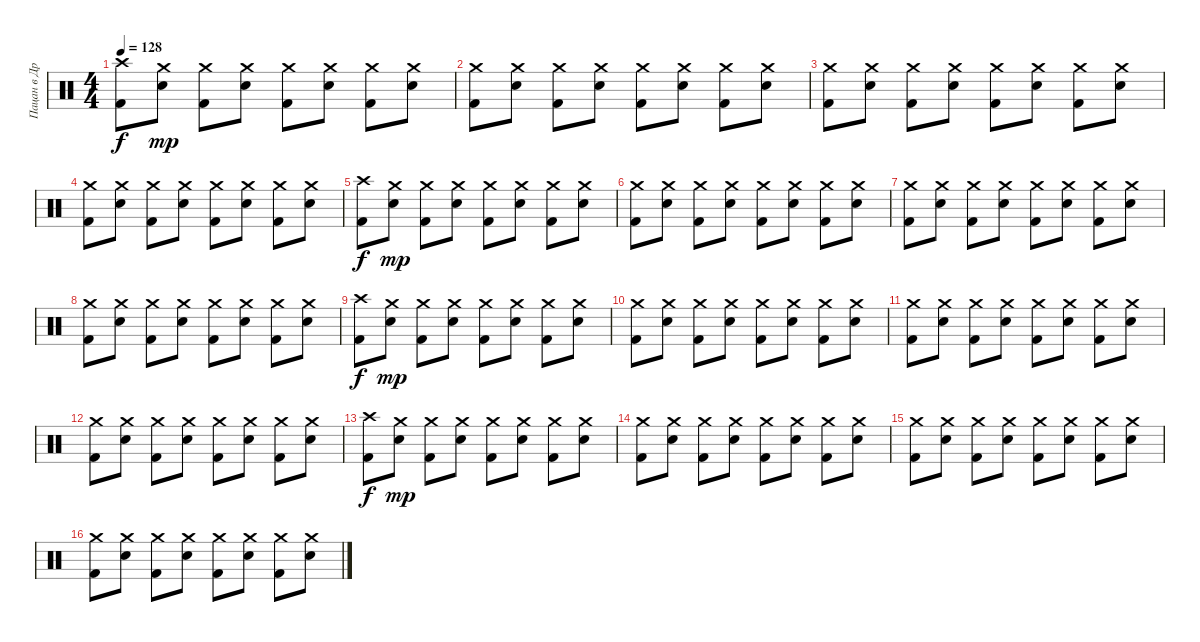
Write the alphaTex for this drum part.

\track ("Пацан в Дредах" "Пацан в Др") {instrument percussion}
\staff {score}
\articulation defaults
\ts (4 4)
\tempo 128
\clef neutral
\ks c
("Crash high (hit)" "Kick (hit) 2").8{dy f} ("Crash medium (hit)" "Electric Snare (hit)").8{dy mp} ("Crash medium (hit)" "Kick (hit) 2").8 ("Crash medium (hit)" "Electric Snare (hit)").8 ("Crash medium (hit)" "Kick (hit) 2").8 ("Crash medium (hit)" "Electric Snare (hit)").8 ("Crash medium (hit)" "Kick (hit) 2").8 ("Crash medium (hit)" "Electric Snare (hit)").8 |
("Crash medium (hit)" "Kick (hit) 2").8 ("Crash medium (hit)" "Electric Snare (hit)").8 ("Crash medium (hit)" "Kick (hit) 2").8 ("Crash medium (hit)" "Electric Snare (hit)").8 ("Crash medium (hit)" "Kick (hit) 2").8 ("Crash medium (hit)" "Electric Snare (hit)").8 ("Crash medium (hit)" "Kick (hit) 2").8 ("Crash medium (hit)" "Electric Snare (hit)").8 |
("Crash medium (hit)" "Kick (hit) 2").8 ("Crash medium (hit)" "Electric Snare (hit)").8 ("Crash medium (hit)" "Kick (hit) 2").8 ("Crash medium (hit)" "Electric Snare (hit)").8 ("Crash medium (hit)" "Kick (hit) 2").8 ("Crash medium (hit)" "Electric Snare (hit)").8 ("Crash medium (hit)" "Kick (hit) 2").8 ("Crash medium (hit)" "Electric Snare (hit)").8 |
("Crash medium (hit)" "Kick (hit) 2").8 ("Crash medium (hit)" "Electric Snare (hit)").8 ("Crash medium (hit)" "Kick (hit) 2").8 ("Crash medium (hit)" "Electric Snare (hit)").8 ("Crash medium (hit)" "Kick (hit) 2").8 ("Crash medium (hit)" "Electric Snare (hit)").8 ("Crash medium (hit)" "Kick (hit) 2").8 ("Crash medium (hit)" "Electric Snare (hit)").8 |
("Crash high (hit)" "Kick (hit) 2").8{dy f} ("Crash medium (hit)" "Electric Snare (hit)").8{dy mp} ("Crash medium (hit)" "Kick (hit) 2").8 ("Crash medium (hit)" "Electric Snare (hit)").8 ("Crash medium (hit)" "Kick (hit) 2").8 ("Crash medium (hit)" "Electric Snare (hit)").8 ("Crash medium (hit)" "Kick (hit) 2").8 ("Crash medium (hit)" "Electric Snare (hit)").8 |
("Crash medium (hit)" "Kick (hit) 2").8 ("Crash medium (hit)" "Electric Snare (hit)").8 ("Crash medium (hit)" "Kick (hit) 2").8 ("Crash medium (hit)" "Electric Snare (hit)").8 ("Crash medium (hit)" "Kick (hit) 2").8 ("Crash medium (hit)" "Electric Snare (hit)").8 ("Crash medium (hit)" "Kick (hit) 2").8 ("Crash medium (hit)" "Electric Snare (hit)").8 |
("Crash medium (hit)" "Kick (hit) 2").8 ("Crash medium (hit)" "Electric Snare (hit)").8 ("Crash medium (hit)" "Kick (hit) 2").8 ("Crash medium (hit)" "Electric Snare (hit)").8 ("Crash medium (hit)" "Kick (hit) 2").8 ("Crash medium (hit)" "Electric Snare (hit)").8 ("Crash medium (hit)" "Kick (hit) 2").8 ("Crash medium (hit)" "Electric Snare (hit)").8 |
("Crash medium (hit)" "Kick (hit) 2").8 ("Crash medium (hit)" "Electric Snare (hit)").8 ("Crash medium (hit)" "Kick (hit) 2").8 ("Crash medium (hit)" "Electric Snare (hit)").8 ("Crash medium (hit)" "Kick (hit) 2").8 ("Crash medium (hit)" "Electric Snare (hit)").8 ("Crash medium (hit)" "Kick (hit) 2").8 ("Crash medium (hit)" "Electric Snare (hit)").8 |
("Crash high (hit)" "Kick (hit) 2").8{dy f} ("Crash medium (hit)" "Electric Snare (hit)").8{dy mp} ("Crash medium (hit)" "Kick (hit) 2").8 ("Crash medium (hit)" "Electric Snare (hit)").8 ("Crash medium (hit)" "Kick (hit) 2").8 ("Crash medium (hit)" "Electric Snare (hit)").8 ("Crash medium (hit)" "Kick (hit) 2").8 ("Crash medium (hit)" "Electric Snare (hit)").8 |
("Crash medium (hit)" "Kick (hit) 2").8 ("Crash medium (hit)" "Electric Snare (hit)").8 ("Crash medium (hit)" "Kick (hit) 2").8 ("Crash medium (hit)" "Electric Snare (hit)").8 ("Crash medium (hit)" "Kick (hit) 2").8 ("Crash medium (hit)" "Electric Snare (hit)").8 ("Crash medium (hit)" "Kick (hit) 2").8 ("Crash medium (hit)" "Electric Snare (hit)").8 |
("Crash medium (hit)" "Kick (hit) 2").8 ("Crash medium (hit)" "Electric Snare (hit)").8 ("Crash medium (hit)" "Kick (hit) 2").8 ("Crash medium (hit)" "Electric Snare (hit)").8 ("Crash medium (hit)" "Kick (hit) 2").8 ("Crash medium (hit)" "Electric Snare (hit)").8 ("Crash medium (hit)" "Kick (hit) 2").8 ("Crash medium (hit)" "Electric Snare (hit)").8 |
("Crash medium (hit)" "Kick (hit) 2").8 ("Crash medium (hit)" "Electric Snare (hit)").8 ("Crash medium (hit)" "Kick (hit) 2").8 ("Crash medium (hit)" "Electric Snare (hit)").8 ("Crash medium (hit)" "Kick (hit) 2").8 ("Crash medium (hit)" "Electric Snare (hit)").8 ("Crash medium (hit)" "Kick (hit) 2").8 ("Crash medium (hit)" "Electric Snare (hit)").8 |
("Crash high (hit)" "Kick (hit) 2").8{dy f} ("Crash medium (hit)" "Electric Snare (hit)").8{dy mp} ("Crash medium (hit)" "Kick (hit) 2").8 ("Crash medium (hit)" "Electric Snare (hit)").8 ("Crash medium (hit)" "Kick (hit) 2").8 ("Crash medium (hit)" "Electric Snare (hit)").8 ("Crash medium (hit)" "Kick (hit) 2").8 ("Crash medium (hit)" "Electric Snare (hit)").8 |
("Crash medium (hit)" "Kick (hit) 2").8 ("Crash medium (hit)" "Electric Snare (hit)").8 ("Crash medium (hit)" "Kick (hit) 2").8 ("Crash medium (hit)" "Electric Snare (hit)").8 ("Crash medium (hit)" "Kick (hit) 2").8 ("Crash medium (hit)" "Electric Snare (hit)").8 ("Crash medium (hit)" "Kick (hit) 2").8 ("Crash medium (hit)" "Electric Snare (hit)").8 |
("Crash medium (hit)" "Kick (hit) 2").8 ("Crash medium (hit)" "Electric Snare (hit)").8 ("Crash medium (hit)" "Kick (hit) 2").8 ("Crash medium (hit)" "Electric Snare (hit)").8 ("Crash medium (hit)" "Kick (hit) 2").8 ("Crash medium (hit)" "Electric Snare (hit)").8 ("Crash medium (hit)" "Kick (hit) 2").8 ("Crash medium (hit)" "Electric Snare (hit)").8 |
("Crash medium (hit)" "Kick (hit) 2").8 ("Crash medium (hit)" "Electric Snare (hit)").8 ("Crash medium (hit)" "Kick (hit) 2").8 ("Crash medium (hit)" "Electric Snare (hit)").8 ("Crash medium (hit)" "Kick (hit) 2").8 ("Crash medium (hit)" "Electric Snare (hit)").8 ("Crash medium (hit)" "Kick (hit) 2").8 ("Crash medium (hit)" "Electric Snare (hit)").8
